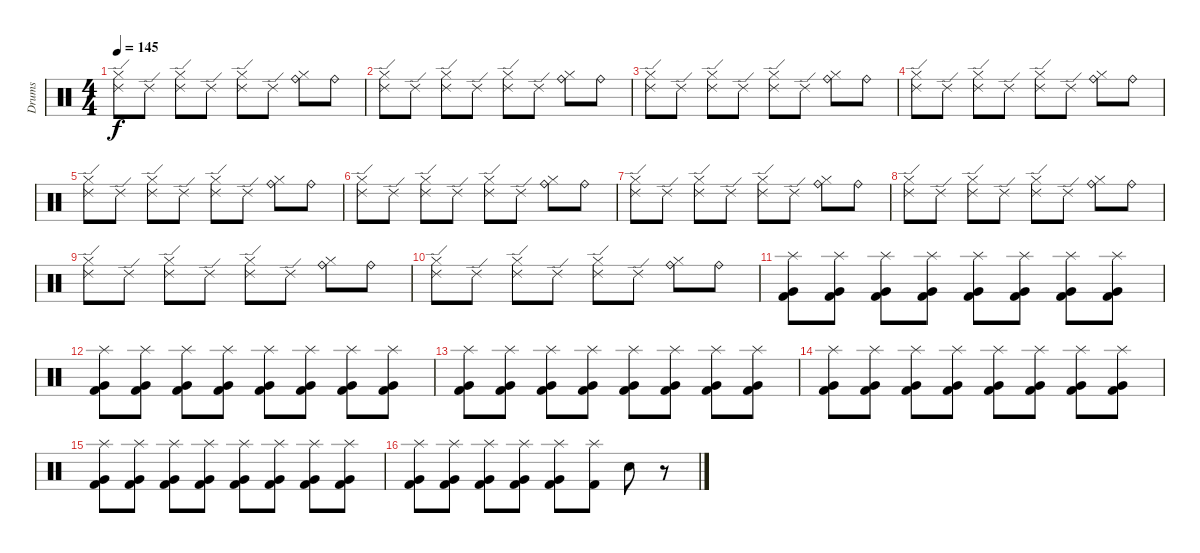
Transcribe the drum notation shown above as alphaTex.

\track ("Drums" "Drums") {instrument percussion}
\staff {score}
\articulation defaults
\ts (4 4)
\tempo 145
\clef neutral
\ks c
("Hi-Hat (closed)" "Ride (edge) 2").8{dy f} "Ride (edge) 2".8 ("Hi-Hat (closed)" "Ride (edge) 2").8 "Ride (edge) 2".8 ("Hi-Hat (closed)" "Ride (edge) 2").8 "Ride (edge) 2".8 ("Hi-Hat (closed)" "Ride (bell)").8 "Ride (bell)".8 |
("Hi-Hat (closed)" "Ride (edge) 2").8 "Ride (edge) 2".8 ("Hi-Hat (closed)" "Ride (edge) 2").8 "Ride (edge) 2".8 ("Hi-Hat (closed)" "Ride (edge) 2").8 "Ride (edge) 2".8 ("Hi-Hat (closed)" "Ride (bell)").8 "Ride (bell)".8 |
("Hi-Hat (closed)" "Ride (edge) 2").8 "Ride (edge) 2".8 ("Hi-Hat (closed)" "Ride (edge) 2").8 "Ride (edge) 2".8 ("Hi-Hat (closed)" "Ride (edge) 2").8 "Ride (edge) 2".8 ("Hi-Hat (closed)" "Ride (bell)").8 "Ride (bell)".8 |
("Hi-Hat (closed)" "Ride (edge) 2").8 "Ride (edge) 2".8 ("Hi-Hat (closed)" "Ride (edge) 2").8 "Ride (edge) 2".8 ("Hi-Hat (closed)" "Ride (edge) 2").8 "Ride (edge) 2".8 ("Hi-Hat (closed)" "Ride (bell)").8 "Ride (bell)".8 |
("Hi-Hat (closed)" "Ride (edge) 2").8 "Ride (edge) 2".8 ("Hi-Hat (closed)" "Ride (edge) 2").8 "Ride (edge) 2".8 ("Hi-Hat (closed)" "Ride (edge) 2").8 "Ride (edge) 2".8 ("Hi-Hat (closed)" "Ride (bell)").8 "Ride (bell)".8 |
("Hi-Hat (closed)" "Ride (edge) 2").8 "Ride (edge) 2".8 ("Hi-Hat (closed)" "Ride (edge) 2").8 "Ride (edge) 2".8 ("Hi-Hat (closed)" "Ride (edge) 2").8 "Ride (edge) 2".8 ("Hi-Hat (closed)" "Ride (bell)").8 "Ride (bell)".8 |
("Hi-Hat (closed)" "Ride (edge) 2").8 "Ride (edge) 2".8 ("Hi-Hat (closed)" "Ride (edge) 2").8 "Ride (edge) 2".8 ("Hi-Hat (closed)" "Ride (edge) 2").8 "Ride (edge) 2".8 ("Hi-Hat (closed)" "Ride (bell)").8 "Ride (bell)".8 |
("Hi-Hat (closed)" "Ride (edge) 2").8 "Ride (edge) 2".8 ("Hi-Hat (closed)" "Ride (edge) 2").8 "Ride (edge) 2".8 ("Hi-Hat (closed)" "Ride (edge) 2").8 "Ride (edge) 2".8 ("Hi-Hat (closed)" "Ride (bell)").8 "Ride (bell)".8 |
("Hi-Hat (closed)" "Ride (edge) 2").8 "Ride (edge) 2".8 ("Hi-Hat (closed)" "Ride (edge) 2").8 "Ride (edge) 2".8 ("Hi-Hat (closed)" "Ride (edge) 2").8 "Ride (edge) 2".8 ("Hi-Hat (closed)" "Ride (bell)").8 "Ride (bell)".8 |
("Hi-Hat (closed)" "Ride (edge) 2").8 "Ride (edge) 2".8 ("Hi-Hat (closed)" "Ride (edge) 2").8 "Ride (edge) 2".8 ("Hi-Hat (closed)" "Ride (edge) 2").8 "Ride (edge) 2".8 ("Hi-Hat (closed)" "Ride (bell)").8 "Ride (bell)".8 |
("Splash (hit)" "Very Low Tom (hit)" "Kick (hit) 2").8 ("Splash (hit)" "Very Low Tom (hit)" "Kick (hit) 2").8 ("Splash (hit)" "Very Low Tom (hit)" "Kick (hit) 2").8 ("Splash (hit)" "Very Low Tom (hit)" "Kick (hit) 2").8 ("Splash (hit)" "Very Low Tom (hit)" "Kick (hit) 2").8 ("Splash (hit)" "Very Low Tom (hit)" "Kick (hit) 2").8 ("Splash (hit)" "Very Low Tom (hit)" "Kick (hit) 2").8 ("Splash (hit)" "Very Low Tom (hit)" "Kick (hit) 2").8 |
("Splash (hit)" "Very Low Tom (hit)" "Kick (hit) 2").8 ("Splash (hit)" "Very Low Tom (hit)" "Kick (hit) 2").8 ("Splash (hit)" "Very Low Tom (hit)" "Kick (hit) 2").8 ("Splash (hit)" "Very Low Tom (hit)" "Kick (hit) 2").8 ("Splash (hit)" "Very Low Tom (hit)" "Kick (hit) 2").8 ("Splash (hit)" "Very Low Tom (hit)" "Kick (hit) 2").8 ("Splash (hit)" "Very Low Tom (hit)" "Kick (hit) 2").8 ("Splash (hit)" "Very Low Tom (hit)" "Kick (hit) 2").8 |
("Splash (hit)" "Very Low Tom (hit)" "Kick (hit) 2").8 ("Splash (hit)" "Very Low Tom (hit)" "Kick (hit) 2").8 ("Splash (hit)" "Very Low Tom (hit)" "Kick (hit) 2").8 ("Splash (hit)" "Very Low Tom (hit)" "Kick (hit) 2").8 ("Splash (hit)" "Very Low Tom (hit)" "Kick (hit) 2").8 ("Splash (hit)" "Very Low Tom (hit)" "Kick (hit) 2").8 ("Splash (hit)" "Very Low Tom (hit)" "Kick (hit) 2").8 ("Splash (hit)" "Very Low Tom (hit)" "Kick (hit) 2").8 |
("Splash (hit)" "Very Low Tom (hit)" "Kick (hit) 2").8 ("Splash (hit)" "Very Low Tom (hit)" "Kick (hit) 2").8 ("Splash (hit)" "Very Low Tom (hit)" "Kick (hit) 2").8 ("Splash (hit)" "Very Low Tom (hit)" "Kick (hit) 2").8 ("Splash (hit)" "Very Low Tom (hit)" "Kick (hit) 2").8 ("Splash (hit)" "Very Low Tom (hit)" "Kick (hit) 2").8 ("Splash (hit)" "Very Low Tom (hit)" "Kick (hit) 2").8 ("Splash (hit)" "Very Low Tom (hit)" "Kick (hit) 2").8 |
("Splash (hit)" "Very Low Tom (hit)" "Kick (hit) 2").8 ("Splash (hit)" "Very Low Tom (hit)" "Kick (hit) 2").8 ("Splash (hit)" "Very Low Tom (hit)" "Kick (hit) 2").8 ("Splash (hit)" "Very Low Tom (hit)" "Kick (hit) 2").8 ("Splash (hit)" "Very Low Tom (hit)" "Kick (hit) 2").8 ("Splash (hit)" "Very Low Tom (hit)" "Kick (hit) 2").8 ("Splash (hit)" "Very Low Tom (hit)" "Kick (hit) 2").8 ("Splash (hit)" "Very Low Tom (hit)" "Kick (hit) 2").8 |
("Splash (hit)" "Very Low Tom (hit)" "Kick (hit) 2").8 ("Splash (hit)" "Very Low Tom (hit)" "Kick (hit) 2").8 ("Splash (hit)" "Very Low Tom (hit)" "Kick (hit) 2").8 ("Splash (hit)" "Very Low Tom (hit)" "Kick (hit) 2").8 ("Splash (hit)" "Very Low Tom (hit)" "Kick (hit) 2").8 ("Splash (hit)" "Kick (hit) 2").8 "Electric Snare (hit)".8 r.8
